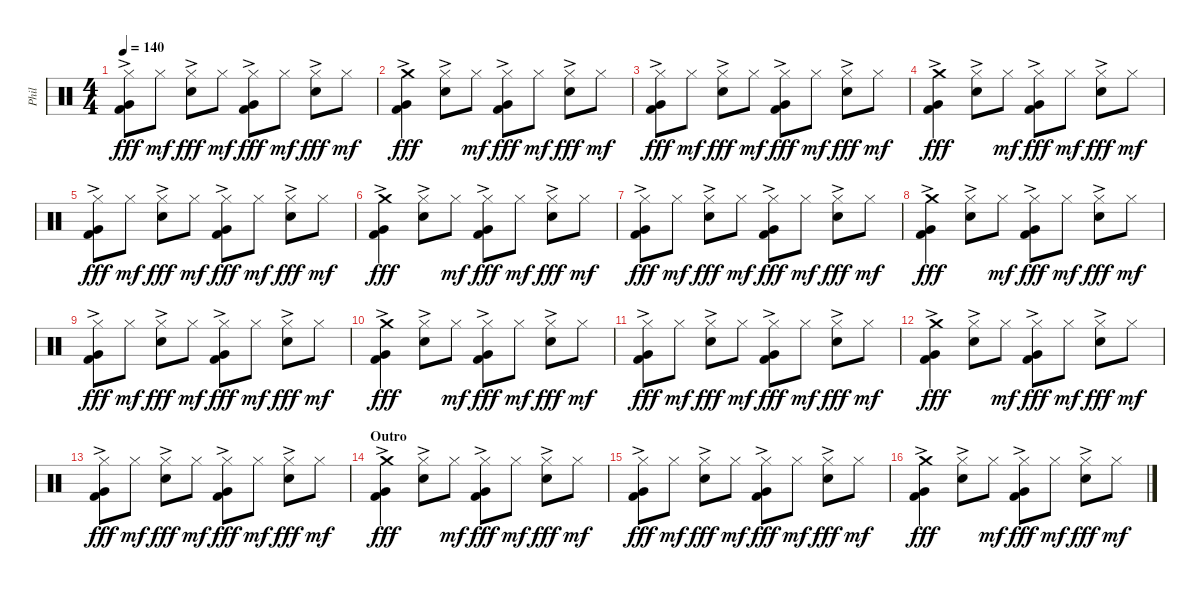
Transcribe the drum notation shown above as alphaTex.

\track ("Phil" "Phil") {instrument percussion}
\staff {score}
\articulation defaults
\ts (4 4)
\tempo 140
\clef neutral
\ks c
("Hi-Hat (closed)"{ac} "Very Low Tom (hit)"{ac} "Kick (hit) 2"{ac}).8{dy fff} "Hi-Hat (closed)".8{dy mf} ("Hi-Hat (closed)"{ac} "Snare (hit) 2").8{dy fff} "Hi-Hat (closed)".8{dy mf} ("Hi-Hat (closed)"{ac} "Very Low Tom (hit)"{ac} "Kick (hit) 2"{ac}).8{dy fff} "Hi-Hat (closed)".8{dy mf} ("Hi-Hat (closed)"{ac} "Snare (hit) 2").8{dy fff} "Hi-Hat (closed)".8{dy mf} |
("Crash medium (hit)"{ac} "Very Low Tom (hit)"{ac} "Kick (hit) 2"{ac}).4{dy fff} ("Hi-Hat (closed)"{ac} "Snare (hit) 2").8 "Hi-Hat (closed)".8{dy mf} ("Hi-Hat (closed)"{ac} "Very Low Tom (hit)"{ac} "Kick (hit) 2"{ac}).8{dy fff} "Hi-Hat (closed)".8{dy mf} ("Hi-Hat (closed)"{ac} "Snare (hit) 2").8{dy fff} "Hi-Hat (closed)".8{dy mf} |
("Hi-Hat (closed)"{ac} "Very Low Tom (hit)"{ac} "Kick (hit) 2"{ac}).8{dy fff} "Hi-Hat (closed)".8{dy mf} ("Hi-Hat (closed)"{ac} "Snare (hit) 2").8{dy fff} "Hi-Hat (closed)".8{dy mf} ("Hi-Hat (closed)"{ac} "Very Low Tom (hit)"{ac} "Kick (hit) 2"{ac}).8{dy fff} "Hi-Hat (closed)".8{dy mf} ("Hi-Hat (closed)"{ac} "Snare (hit) 2").8{dy fff} "Hi-Hat (closed)".8{dy mf} |
("Crash medium (hit)"{ac} "Very Low Tom (hit)"{ac} "Kick (hit) 2"{ac}).4{dy fff} ("Hi-Hat (closed)"{ac} "Snare (hit) 2").8 "Hi-Hat (closed)".8{dy mf} ("Hi-Hat (closed)"{ac} "Very Low Tom (hit)"{ac} "Kick (hit) 2"{ac}).8{dy fff} "Hi-Hat (closed)".8{dy mf} ("Hi-Hat (closed)"{ac} "Snare (hit) 2").8{dy fff} "Hi-Hat (closed)".8{dy mf} |
("Hi-Hat (closed)"{ac} "Very Low Tom (hit)"{ac} "Kick (hit) 2"{ac}).8{dy fff} "Hi-Hat (closed)".8{dy mf} ("Hi-Hat (closed)"{ac} "Snare (hit) 2").8{dy fff} "Hi-Hat (closed)".8{dy mf} ("Hi-Hat (closed)"{ac} "Very Low Tom (hit)"{ac} "Kick (hit) 2"{ac}).8{dy fff} "Hi-Hat (closed)".8{dy mf} ("Hi-Hat (closed)"{ac} "Snare (hit) 2").8{dy fff} "Hi-Hat (closed)".8{dy mf} |
("Crash medium (hit)"{ac} "Very Low Tom (hit)"{ac} "Kick (hit) 2"{ac}).4{dy fff} ("Hi-Hat (closed)"{ac} "Snare (hit) 2").8 "Hi-Hat (closed)".8{dy mf} ("Hi-Hat (closed)"{ac} "Very Low Tom (hit)"{ac} "Kick (hit) 2"{ac}).8{dy fff} "Hi-Hat (closed)".8{dy mf} ("Hi-Hat (closed)"{ac} "Snare (hit) 2").8{dy fff} "Hi-Hat (closed)".8{dy mf} |
("Hi-Hat (closed)"{ac} "Very Low Tom (hit)"{ac} "Kick (hit) 2"{ac}).8{dy fff} "Hi-Hat (closed)".8{dy mf} ("Hi-Hat (closed)"{ac} "Snare (hit) 2").8{dy fff} "Hi-Hat (closed)".8{dy mf} ("Hi-Hat (closed)"{ac} "Very Low Tom (hit)"{ac} "Kick (hit) 2"{ac}).8{dy fff} "Hi-Hat (closed)".8{dy mf} ("Hi-Hat (closed)"{ac} "Snare (hit) 2").8{dy fff} "Hi-Hat (closed)".8{dy mf} |
("Crash medium (hit)"{ac} "Very Low Tom (hit)"{ac} "Kick (hit) 2"{ac}).4{dy fff} ("Hi-Hat (closed)"{ac} "Snare (hit) 2").8 "Hi-Hat (closed)".8{dy mf} ("Hi-Hat (closed)"{ac} "Very Low Tom (hit)"{ac} "Kick (hit) 2"{ac}).8{dy fff} "Hi-Hat (closed)".8{dy mf} ("Hi-Hat (closed)"{ac} "Snare (hit) 2").8{dy fff} "Hi-Hat (closed)".8{dy mf} |
("Hi-Hat (closed)"{ac} "Very Low Tom (hit)"{ac} "Kick (hit) 2"{ac}).8{dy fff} "Hi-Hat (closed)".8{dy mf} ("Hi-Hat (closed)"{ac} "Snare (hit) 2").8{dy fff} "Hi-Hat (closed)".8{dy mf} ("Hi-Hat (closed)"{ac} "Very Low Tom (hit)"{ac} "Kick (hit) 2"{ac}).8{dy fff} "Hi-Hat (closed)".8{dy mf} ("Hi-Hat (closed)"{ac} "Snare (hit) 2").8{dy fff} "Hi-Hat (closed)".8{dy mf} |
("Crash medium (hit)"{ac} "Very Low Tom (hit)"{ac} "Kick (hit) 2"{ac}).4{dy fff} ("Hi-Hat (closed)"{ac} "Snare (hit) 2").8 "Hi-Hat (closed)".8{dy mf} ("Hi-Hat (closed)"{ac} "Very Low Tom (hit)"{ac} "Kick (hit) 2"{ac}).8{dy fff} "Hi-Hat (closed)".8{dy mf} ("Hi-Hat (closed)"{ac} "Snare (hit) 2").8{dy fff} "Hi-Hat (closed)".8{dy mf} |
("Hi-Hat (closed)"{ac} "Very Low Tom (hit)"{ac} "Kick (hit) 2"{ac}).8{dy fff} "Hi-Hat (closed)".8{dy mf} ("Hi-Hat (closed)"{ac} "Snare (hit) 2").8{dy fff} "Hi-Hat (closed)".8{dy mf} ("Hi-Hat (closed)"{ac} "Very Low Tom (hit)"{ac} "Kick (hit) 2"{ac}).8{dy fff} "Hi-Hat (closed)".8{dy mf} ("Hi-Hat (closed)"{ac} "Snare (hit) 2").8{dy fff} "Hi-Hat (closed)".8{dy mf} |
("Crash medium (hit)"{ac} "Very Low Tom (hit)"{ac} "Kick (hit) 2"{ac}).4{dy fff} ("Hi-Hat (closed)"{ac} "Snare (hit) 2").8 "Hi-Hat (closed)".8{dy mf} ("Hi-Hat (closed)"{ac} "Very Low Tom (hit)"{ac} "Kick (hit) 2"{ac}).8{dy fff} "Hi-Hat (closed)".8{dy mf} ("Hi-Hat (closed)"{ac} "Snare (hit) 2").8{dy fff} "Hi-Hat (closed)".8{dy mf} |
("Hi-Hat (closed)"{ac} "Very Low Tom (hit)"{ac} "Kick (hit) 2"{ac}).8{dy fff} "Hi-Hat (closed)".8{dy mf} ("Hi-Hat (closed)"{ac} "Snare (hit) 2").8{dy fff} "Hi-Hat (closed)".8{dy mf} ("Hi-Hat (closed)"{ac} "Very Low Tom (hit)"{ac} "Kick (hit) 2"{ac}).8{dy fff} "Hi-Hat (closed)".8{dy mf} ("Hi-Hat (closed)"{ac} "Snare (hit) 2").8{dy fff} "Hi-Hat (closed)".8{dy mf} |
\section ("" "Outro")
("Crash medium (hit)"{ac} "Very Low Tom (hit)"{ac} "Kick (hit) 2"{ac}).4{dy fff} ("Hi-Hat (closed)"{ac} "Snare (hit) 2").8 "Hi-Hat (closed)".8{dy mf} ("Hi-Hat (closed)"{ac} "Very Low Tom (hit)"{ac} "Kick (hit) 2"{ac}).8{dy fff} "Hi-Hat (closed)".8{dy mf} ("Hi-Hat (closed)"{ac} "Snare (hit) 2").8{dy fff} "Hi-Hat (closed)".8{dy mf} |
("Hi-Hat (closed)"{ac} "Very Low Tom (hit)"{ac} "Kick (hit) 2"{ac}).8{dy fff} "Hi-Hat (closed)".8{dy mf} ("Hi-Hat (closed)"{ac} "Snare (hit) 2").8{dy fff} "Hi-Hat (closed)".8{dy mf} ("Hi-Hat (closed)"{ac} "Very Low Tom (hit)"{ac} "Kick (hit) 2"{ac}).8{dy fff} "Hi-Hat (closed)".8{dy mf} ("Hi-Hat (closed)"{ac} "Snare (hit) 2").8{dy fff} "Hi-Hat (closed)".8{dy mf} |
("Crash medium (hit)"{ac} "Very Low Tom (hit)"{ac} "Kick (hit) 2"{ac}).4{dy fff} ("Hi-Hat (closed)"{ac} "Snare (hit) 2").8 "Hi-Hat (closed)".8{dy mf} ("Hi-Hat (closed)"{ac} "Very Low Tom (hit)"{ac} "Kick (hit) 2"{ac}).8{dy fff} "Hi-Hat (closed)".8{dy mf} ("Hi-Hat (closed)"{ac} "Snare (hit) 2").8{dy fff} "Hi-Hat (closed)".8{dy mf}
